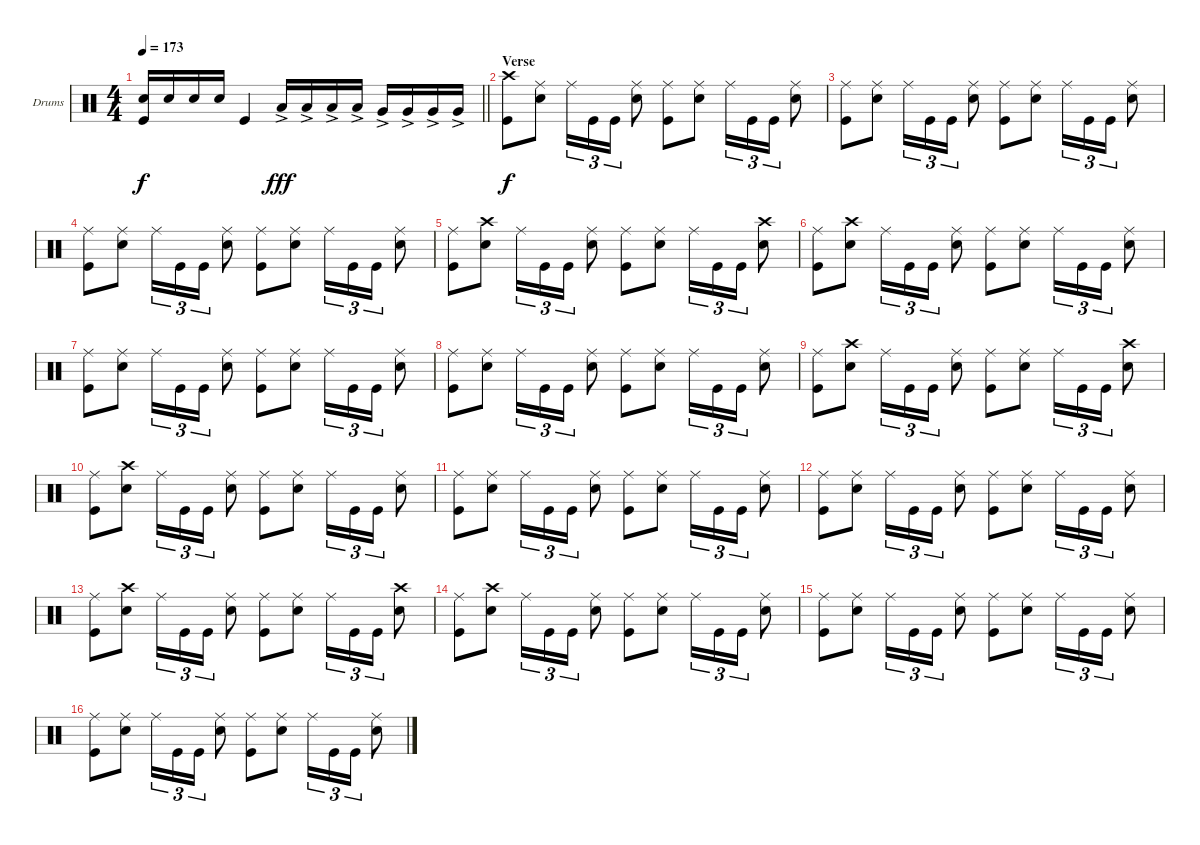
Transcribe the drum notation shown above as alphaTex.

\bracketExtendMode groupsimilarinstruments
\firstSystemTrackNameOrientation horizontal
\otherSystemsTrackNameOrientation horizontal
\track ("Drums" "Drums") {instrument percussion}
\staff {score}
\articulation defaults
\ts (4 4)
\tempo 173
\clef neutral
\barLineRight lightlight
\ks c
("Snare (hit) 2" "Kick (hit)").16{dy f} "Snare (hit) 2".16 "Snare (hit) 2".16 "Snare (hit) 2".16 "Kick (hit)".4 "Low Tom (hit)"{ac}.16{dy fff} "Low Tom (hit)"{ac}.16 "Low Tom (hit)"{ac}.16 "Low Tom (hit)"{ac}.16 "Very Low Tom (hit)"{ac}.16 "Very Low Tom (hit)"{ac}.16 "Very Low Tom (hit)"{ac}.16 "Very Low Tom (hit)"{ac}.16 |
\section ("" "Verse")
("Crash high (hit)" "Kick (hit)").8{dy f} ("Snare (hit) 2" "Ride (middle)").8 "Ride (middle)".16{tu (3 2)} "Kick (hit)".16{tu (3 2)} "Kick (hit)".16{tu (3 2)} ("Snare (hit) 2" "Ride (middle)").8 ("Kick (hit)" "Ride (middle)").8 ("Snare (hit) 2" "Ride (middle)").8 "Ride (middle)".16{tu (3 2)} "Kick (hit)".16{tu (3 2)} "Kick (hit)".16{tu (3 2)} ("Snare (hit) 2" "Ride (middle)").8 |
("Kick (hit)" "Ride (middle)").8 ("Snare (hit) 2" "Ride (middle)").8 "Ride (middle)".16{tu (3 2)} "Kick (hit)".16{tu (3 2)} "Kick (hit)".16{tu (3 2)} ("Snare (hit) 2" "Ride (middle)").8 ("Kick (hit)" "Ride (middle)").8 ("Snare (hit) 2" "Ride (middle)").8 "Ride (middle)".16{tu (3 2)} "Kick (hit)".16{tu (3 2)} "Kick (hit)".16{tu (3 2)} ("Snare (hit) 2" "Ride (middle)").8 |
("Kick (hit)" "Ride (middle)").8 ("Snare (hit) 2" "Ride (middle)").8 "Ride (middle)".16{tu (3 2)} "Kick (hit)".16{tu (3 2)} "Kick (hit)".16{tu (3 2)} ("Snare (hit) 2" "Ride (middle)").8 ("Kick (hit)" "Ride (middle)").8 ("Snare (hit) 2" "Ride (middle)").8 "Ride (middle)".16{tu (3 2)} "Kick (hit)".16{tu (3 2)} "Kick (hit)".16{tu (3 2)} ("Snare (hit) 2" "Ride (middle)").8 |
("Kick (hit)" "Ride (middle)").8 ("Snare (hit) 2" "Crash high (hit)").8 "Ride (middle)".16{tu (3 2)} "Kick (hit)".16{tu (3 2)} "Kick (hit)".16{tu (3 2)} ("Snare (hit) 2" "Ride (middle)").8 ("Kick (hit)" "Ride (middle)").8 ("Snare (hit) 2" "Ride (middle)").8 "Ride (middle)".16{tu (3 2)} "Kick (hit)".16{tu (3 2)} "Kick (hit)".16{tu (3 2)} ("Snare (hit) 2" "Crash high (hit)").8 |
("Kick (hit)" "Ride (middle)").8 ("Snare (hit) 2" "Crash high (hit)").8 "Ride (middle)".16{tu (3 2)} "Kick (hit)".16{tu (3 2)} "Kick (hit)".16{tu (3 2)} ("Snare (hit) 2" "Ride (middle)").8 ("Kick (hit)" "Ride (middle)").8 ("Snare (hit) 2" "Ride (middle)").8 "Ride (middle)".16{tu (3 2)} "Kick (hit)".16{tu (3 2)} "Kick (hit)".16{tu (3 2)} ("Snare (hit) 2" "Ride (middle)").8 |
("Kick (hit)" "Ride (middle)").8 ("Snare (hit) 2" "Ride (middle)").8 "Ride (middle)".16{tu (3 2)} "Kick (hit)".16{tu (3 2)} "Kick (hit)".16{tu (3 2)} ("Snare (hit) 2" "Ride (middle)").8 ("Kick (hit)" "Ride (middle)").8 ("Snare (hit) 2" "Ride (middle)").8 "Ride (middle)".16{tu (3 2)} "Kick (hit)".16{tu (3 2)} "Kick (hit)".16{tu (3 2)} ("Snare (hit) 2" "Ride (middle)").8 |
("Kick (hit)" "Ride (middle)").8 ("Snare (hit) 2" "Ride (middle)").8 "Ride (middle)".16{tu (3 2)} "Kick (hit)".16{tu (3 2)} "Kick (hit)".16{tu (3 2)} ("Snare (hit) 2" "Ride (middle)").8 ("Kick (hit)" "Ride (middle)").8 ("Snare (hit) 2" "Ride (middle)").8 "Ride (middle)".16{tu (3 2)} "Kick (hit)".16{tu (3 2)} "Kick (hit)".16{tu (3 2)} ("Snare (hit) 2" "Ride (middle)").8 |
("Kick (hit)" "Ride (middle)").8 ("Snare (hit) 2" "Crash high (hit)").8 "Ride (middle)".16{tu (3 2)} "Kick (hit)".16{tu (3 2)} "Kick (hit)".16{tu (3 2)} ("Snare (hit) 2" "Ride (middle)").8 ("Kick (hit)" "Ride (middle)").8 ("Snare (hit) 2" "Ride (middle)").8 "Ride (middle)".16{tu (3 2)} "Kick (hit)".16{tu (3 2)} "Kick (hit)".16{tu (3 2)} ("Snare (hit) 2" "Crash high (hit)").8 |
("Kick (hit)" "Ride (middle)").8 ("Snare (hit) 2" "Crash high (hit)").8 "Ride (middle)".16{tu (3 2)} "Kick (hit)".16{tu (3 2)} "Kick (hit)".16{tu (3 2)} ("Snare (hit) 2" "Ride (middle)").8 ("Kick (hit)" "Ride (middle)").8 ("Snare (hit) 2" "Ride (middle)").8 "Ride (middle)".16{tu (3 2)} "Kick (hit)".16{tu (3 2)} "Kick (hit)".16{tu (3 2)} ("Snare (hit) 2" "Ride (middle)").8 |
("Kick (hit)" "Ride (middle)").8 ("Snare (hit) 2" "Ride (middle)").8 "Ride (middle)".16{tu (3 2)} "Kick (hit)".16{tu (3 2)} "Kick (hit)".16{tu (3 2)} ("Snare (hit) 2" "Ride (middle)").8 ("Kick (hit)" "Ride (middle)").8 ("Snare (hit) 2" "Ride (middle)").8 "Ride (middle)".16{tu (3 2)} "Kick (hit)".16{tu (3 2)} "Kick (hit)".16{tu (3 2)} ("Snare (hit) 2" "Ride (middle)").8 |
("Kick (hit)" "Ride (middle)").8 ("Snare (hit) 2" "Ride (middle)").8 "Ride (middle)".16{tu (3 2)} "Kick (hit)".16{tu (3 2)} "Kick (hit)".16{tu (3 2)} ("Snare (hit) 2" "Ride (middle)").8 ("Kick (hit)" "Ride (middle)").8 ("Snare (hit) 2" "Ride (middle)").8 "Ride (middle)".16{tu (3 2)} "Kick (hit)".16{tu (3 2)} "Kick (hit)".16{tu (3 2)} ("Snare (hit) 2" "Ride (middle)").8 |
("Kick (hit)" "Ride (middle)").8 ("Snare (hit) 2" "Crash high (hit)").8 "Ride (middle)".16{tu (3 2)} "Kick (hit)".16{tu (3 2)} "Kick (hit)".16{tu (3 2)} ("Snare (hit) 2" "Ride (middle)").8 ("Kick (hit)" "Ride (middle)").8 ("Snare (hit) 2" "Ride (middle)").8 "Ride (middle)".16{tu (3 2)} "Kick (hit)".16{tu (3 2)} "Kick (hit)".16{tu (3 2)} ("Snare (hit) 2" "Crash high (hit)").8 |
("Kick (hit)" "Ride (middle)").8 ("Snare (hit) 2" "Crash high (hit)").8 "Ride (middle)".16{tu (3 2)} "Kick (hit)".16{tu (3 2)} "Kick (hit)".16{tu (3 2)} ("Snare (hit) 2" "Ride (middle)").8 ("Kick (hit)" "Ride (middle)").8 ("Snare (hit) 2" "Ride (middle)").8 "Ride (middle)".16{tu (3 2)} "Kick (hit)".16{tu (3 2)} "Kick (hit)".16{tu (3 2)} ("Snare (hit) 2" "Ride (middle)").8 |
("Kick (hit)" "Ride (middle)").8 ("Snare (hit) 2" "Ride (middle)").8 "Ride (middle)".16{tu (3 2)} "Kick (hit)".16{tu (3 2)} "Kick (hit)".16{tu (3 2)} ("Snare (hit) 2" "Ride (middle)").8 ("Kick (hit)" "Ride (middle)").8 ("Snare (hit) 2" "Ride (middle)").8 "Ride (middle)".16{tu (3 2)} "Kick (hit)".16{tu (3 2)} "Kick (hit)".16{tu (3 2)} ("Snare (hit) 2" "Ride (middle)").8 |
("Kick (hit)" "Ride (middle)").8 ("Snare (hit) 2" "Ride (middle)").8 "Ride (middle)".16{tu (3 2)} "Kick (hit)".16{tu (3 2)} "Kick (hit)".16{tu (3 2)} ("Snare (hit) 2" "Ride (middle)").8 ("Kick (hit)" "Ride (middle)").8 ("Snare (hit) 2" "Ride (middle)").8 "Ride (middle)".16{tu (3 2)} "Kick (hit)".16{tu (3 2)} "Kick (hit)".16{tu (3 2)} ("Snare (hit) 2" "Ride (middle)").8
